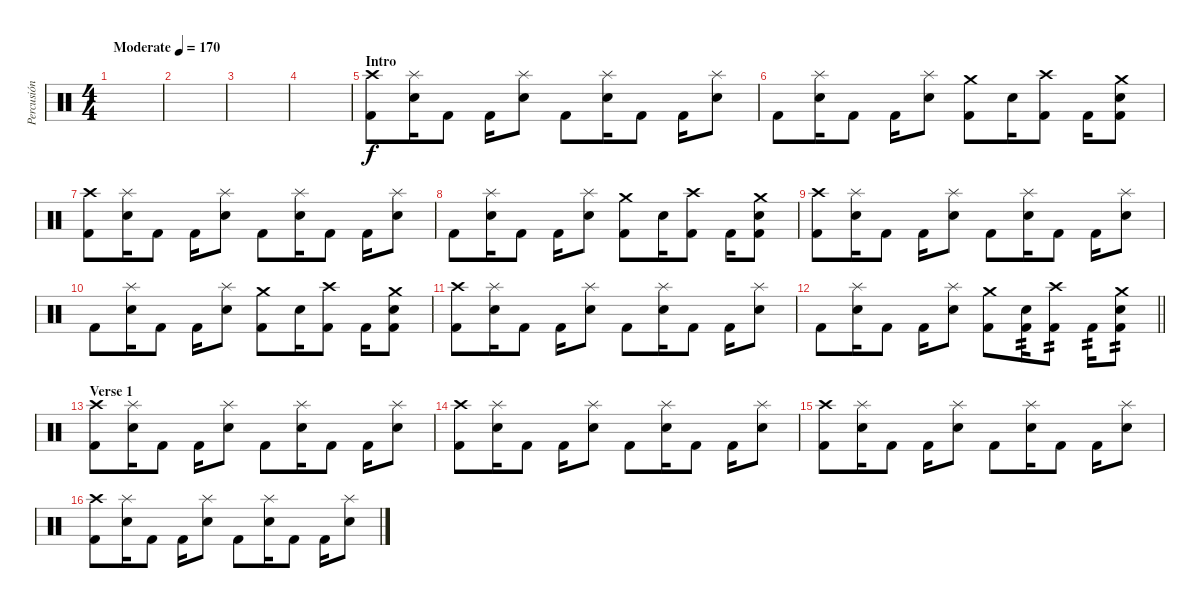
\track ("Percusión" "Percusión") {instrument percussion}
\staff {score}
\articulation defaults
\ts (4 4)
\tempo (170 "Moderate")
\clef neutral
\ks c
|
|
|
|
\section ("" "Intro")
("Crash high (hit)" "Kick (hit) 2").8 ("Splash (hit)" "Snare (hit) 2").16 "Kick (hit) 2".8 "Kick (hit) 2".16 ("Splash (hit)" "Snare (hit) 2").8 "Kick (hit) 2".8 ("Splash (hit)" "Snare (hit) 2").16 "Kick (hit) 2".8 "Kick (hit) 2".16 ("Splash (hit)" "Snare (hit) 2").8 |
"Kick (hit) 2".8 ("Splash (hit)" "Snare (hit) 2").16 "Kick (hit) 2".8 "Kick (hit) 2".16 ("Splash (hit)" "Snare (hit) 2").8 ("Crash medium (hit)" "Kick (hit) 2").8 "Snare (hit) 2".16 ("Crash high (hit)" "Kick (hit) 2").8 "Kick (hit) 2".16 ("Crash medium (hit)" "Snare (hit) 2" "Kick (hit) 2").8 |
("Crash high (hit)" "Kick (hit) 2").8 ("Splash (hit)" "Snare (hit) 2").16 "Kick (hit) 2".8 "Kick (hit) 2".16 ("Splash (hit)" "Snare (hit) 2").8 "Kick (hit) 2".8 ("Splash (hit)" "Snare (hit) 2").16 "Kick (hit) 2".8 "Kick (hit) 2".16 ("Splash (hit)" "Snare (hit) 2").8 |
"Kick (hit) 2".8 ("Splash (hit)" "Snare (hit) 2").16 "Kick (hit) 2".8 "Kick (hit) 2".16 ("Splash (hit)" "Snare (hit) 2").8 ("Crash medium (hit)" "Kick (hit) 2").8 "Snare (hit) 2".16 ("Crash high (hit)" "Kick (hit) 2").8 "Kick (hit) 2".16 ("Crash medium (hit)" "Snare (hit) 2" "Kick (hit) 2").8 |
("Crash high (hit)" "Kick (hit) 2").8 ("Splash (hit)" "Snare (hit) 2").16 "Kick (hit) 2".8 "Kick (hit) 2".16 ("Splash (hit)" "Snare (hit) 2").8 "Kick (hit) 2".8 ("Splash (hit)" "Snare (hit) 2").16 "Kick (hit) 2".8 "Kick (hit) 2".16 ("Splash (hit)" "Snare (hit) 2").8 |
"Kick (hit) 2".8 ("Splash (hit)" "Snare (hit) 2").16 "Kick (hit) 2".8 "Kick (hit) 2".16 ("Splash (hit)" "Snare (hit) 2").8 ("Crash medium (hit)" "Kick (hit) 2").8 "Snare (hit) 2".16 ("Crash high (hit)" "Kick (hit) 2").8 "Kick (hit) 2".16 ("Crash medium (hit)" "Snare (hit) 2" "Kick (hit) 2").8 |
("Crash high (hit)" "Kick (hit) 2").8 ("Splash (hit)" "Snare (hit) 2").16 "Kick (hit) 2".8 "Kick (hit) 2".16 ("Splash (hit)" "Snare (hit) 2").8 "Kick (hit) 2".8 ("Splash (hit)" "Snare (hit) 2").16 "Kick (hit) 2".8 "Kick (hit) 2".16 ("Splash (hit)" "Snare (hit) 2").8 |
\barLineRight lightlight "Kick (hit) 2".8
("Splash (hit)" "Snare (hit) 2").16 "Kick (hit) 2".8 "Kick (hit) 2".16 ("Splash (hit)" "Snare (hit) 2").8 ("Crash medium (hit)" "Kick (hit) 2").8 ("Snare (hit) 2" "Kick (hit) 2").16{tp 2} ("Crash high (hit)" "Kick (hit) 2").8{tp 2} "Kick (hit) 2".16{tp 2} ("Crash medium (hit)" "Snare (hit) 2" "Kick (hit) 2").8{tp 2} |
\section ("" "Verse 1")
("Crash high (hit)" "Kick (hit) 2").8 ("Splash (hit)" "Snare (hit) 2").16 "Kick (hit) 2".8 "Kick (hit) 2".16 ("Splash (hit)" "Snare (hit) 2").8 "Kick (hit) 2".8 ("Splash (hit)" "Snare (hit) 2").16 "Kick (hit) 2".8 "Kick (hit) 2".16 ("Splash (hit)" "Snare (hit) 2").8 |
("Crash high (hit)" "Kick (hit) 2").8 ("Splash (hit)" "Snare (hit) 2").16 "Kick (hit) 2".8 "Kick (hit) 2".16 ("Splash (hit)" "Snare (hit) 2").8 "Kick (hit) 2".8 ("Splash (hit)" "Snare (hit) 2").16 "Kick (hit) 2".8 "Kick (hit) 2".16 ("Splash (hit)" "Snare (hit) 2").8 |
("Crash high (hit)" "Kick (hit) 2").8 ("Splash (hit)" "Snare (hit) 2").16 "Kick (hit) 2".8 "Kick (hit) 2".16 ("Splash (hit)" "Snare (hit) 2").8 "Kick (hit) 2".8 ("Splash (hit)" "Snare (hit) 2").16 "Kick (hit) 2".8 "Kick (hit) 2".16 ("Splash (hit)" "Snare (hit) 2").8 |
("Crash high (hit)" "Kick (hit) 2").8 ("Splash (hit)" "Snare (hit) 2").16 "Kick (hit) 2".8 "Kick (hit) 2".16 ("Splash (hit)" "Snare (hit) 2").8 "Kick (hit) 2".8 ("Splash (hit)" "Snare (hit) 2").16 "Kick (hit) 2".8 "Kick (hit) 2".16 ("Splash (hit)" "Snare (hit) 2").8
